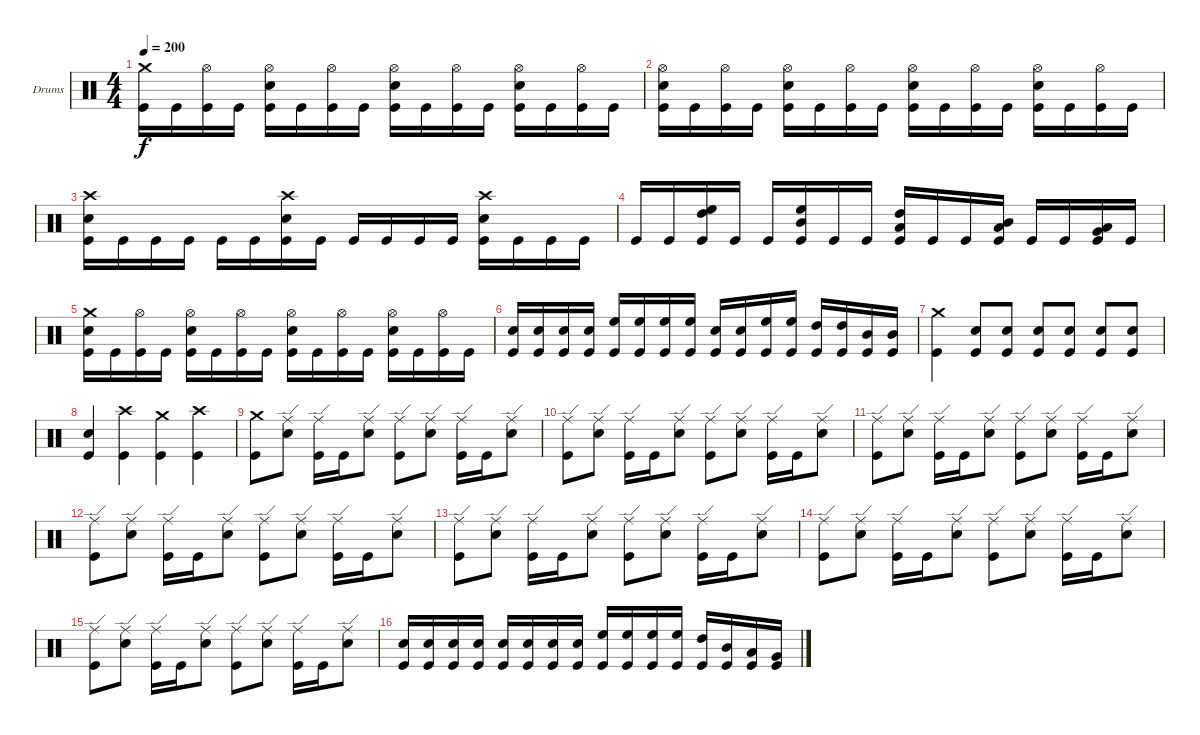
\bracketExtendMode groupsimilarinstruments
\firstSystemTrackNameOrientation horizontal
\otherSystemsTrackNameOrientation horizontal
\track ("Drumkit" "Drums") {instrument percussion}
\staff {score}
\articulation defaults
\ts (4 4)
\section ("" "")
\tempo 200
\clef neutral
\ks aminor
("Kick (hit)" "Crash medium (hit)").16{dy f} "Kick (hit)".16 ("Kick (hit)" "Hi-Hat (open)").16 "Kick (hit)".16 ("Kick (hit)" "Snare (hit) 2" "Hi-Hat (open)").16 "Kick (hit)".16 ("Kick (hit)" "Hi-Hat (open)").16 "Kick (hit)".16 ("Kick (hit)" "Snare (hit) 2" "Hi-Hat (open)").16 "Kick (hit)".16 ("Kick (hit)" "Hi-Hat (open)").16 "Kick (hit)".16 ("Kick (hit)" "Snare (hit) 2" "Hi-Hat (open)").16 "Kick (hit)".16 ("Kick (hit)" "Hi-Hat (open)").16 "Kick (hit)".16 |
("Kick (hit)" "Snare (hit) 2" "Hi-Hat (open)").16 "Kick (hit)".16 ("Kick (hit)" "Hi-Hat (open)").16 "Kick (hit)".16 ("Kick (hit)" "Snare (hit) 2" "Hi-Hat (open)").16 "Kick (hit)".16 ("Kick (hit)" "Hi-Hat (open)").16 "Kick (hit)".16 ("Kick (hit)" "Snare (hit) 2" "Hi-Hat (open)").16 "Kick (hit)".16 ("Kick (hit)" "Hi-Hat (open)").16 "Kick (hit)".16 ("Kick (hit)" "Snare (hit) 2" "Hi-Hat (open)").16 "Kick (hit)".16 ("Kick (hit)" "Hi-Hat (open)").16 "Kick (hit)".16 |
("Kick (hit)" "Snare (hit) 2" "Crash high (hit)").16 "Kick (hit)".16 "Kick (hit)".16 "Kick (hit)".16 "Kick (hit)".16 "Kick (hit)".16 ("Kick (hit)" "Snare (hit) 2" "Crash high (hit)").16 "Kick (hit)".16 "Kick (hit)".16 "Kick (hit)".16 "Kick (hit)".16 "Kick (hit)".16 ("Kick (hit)" "Snare (hit) 2" "Crash high (hit)").16 "Kick (hit)".16 "Kick (hit)".16 "Kick (hit)".16 |
"Kick (hit)".16 "Kick (hit)".16 ("Kick (hit)" "High Floor Tom (hit)" "High Tom (hit)").16 "Kick (hit)".16 "Kick (hit)".16 ("Kick (hit)" "High Floor Tom (hit)" "Mid Tom (hit)").16 "Kick (hit)".16 "Kick (hit)".16 ("Kick (hit)" "High Tom (hit)" "Low Tom (hit)").16 "Kick (hit)".16 "Kick (hit)".16 ("Kick (hit)" "Mid Tom (hit)" "Low Tom (hit)").16 "Kick (hit)".16 "Kick (hit)".16 ("Kick (hit)" "Low Tom (hit)" "Very Low Tom (hit)").16 "Kick (hit)".16 |
("Kick (hit)" "Snare (hit) 2" "Crash medium (hit)").16 "Kick (hit)".16 ("Kick (hit)" "Hi-Hat (open)").16 "Kick (hit)".16 ("Kick (hit)" "Snare (hit) 2" "Hi-Hat (open)").16 "Kick (hit)".16 ("Kick (hit)" "Hi-Hat (open)").16 "Kick (hit)".16 ("Kick (hit)" "Snare (hit) 2" "Hi-Hat (open)").16 "Kick (hit)".16 ("Kick (hit)" "Hi-Hat (open)").16 "Kick (hit)".16 ("Kick (hit)" "Snare (hit) 2" "Hi-Hat (open)").16 "Kick (hit)".16 ("Kick (hit)" "Hi-Hat (open)").16 "Kick (hit)".16 |
("Kick (hit)" "Snare (hit) 2").16 ("Kick (hit)" "Snare (hit) 2").16 ("Kick (hit)" "Snare (hit) 2").16 ("Kick (hit)" "Snare (hit) 2").16 ("Kick (hit)" "High Floor Tom (hit)").16 ("Kick (hit)" "High Floor Tom (hit)").16 ("Kick (hit)" "High Floor Tom (hit)").16 ("Kick (hit)" "High Floor Tom (hit)").16 ("Kick (hit)" "Snare (hit) 2").16 ("Kick (hit)" "Snare (hit) 2").16 ("Kick (hit)" "High Floor Tom (hit)").16 ("Kick (hit)" "High Floor Tom (hit)").16 ("Kick (hit)" "High Tom (hit)").16 ("Kick (hit)" "High Tom (hit)").16 ("Kick (hit)" "Mid Tom (hit)").16 ("Kick (hit)" "Mid Tom (hit)").16 |
("Kick (hit)" "Crash medium (hit)").4 ("Kick (hit)" "Snare (hit) 2").8 ("Kick (hit)" "Snare (hit) 2").8 ("Kick (hit)" "Snare (hit) 2").8 ("Kick (hit)" "Snare (hit) 2").8 ("Kick (hit)" "Snare (hit) 2").8 ("Kick (hit)" "Snare (hit) 2").8 |
("Kick (hit)" "Snare (hit) 2").4 ("Kick (hit)" "Crash high (hit)").4 ("Kick (hit)" "Crash medium (hit)").4 ("Kick (hit)" "Crash high (hit)").4 |
\section ("" "")
("Kick (hit)" "Crash medium (hit)").8 ("Snare (hit) 2" "Ride (edge)").8 ("Kick (hit)" "Ride (edge)").16 "Kick (hit)".16 ("Snare (hit) 2" "Ride (edge)").8 ("Kick (hit)" "Ride (edge)").8 ("Snare (hit) 2" "Ride (edge)").8 ("Kick (hit)" "Ride (edge)").16 "Kick (hit)".16 ("Snare (hit) 2" "Ride (edge)").8 |
("Kick (hit)" "Ride (edge)").8 ("Snare (hit) 2" "Ride (edge)").8 ("Kick (hit)" "Ride (edge)").16 "Kick (hit)".16 ("Snare (hit) 2" "Ride (edge)").8 ("Kick (hit)" "Ride (edge)").8 ("Snare (hit) 2" "Ride (edge)").8 ("Kick (hit)" "Ride (edge)").16 "Kick (hit)".16 ("Snare (hit) 2" "Ride (edge)").8 |
("Kick (hit)" "Ride (edge)").8 ("Snare (hit) 2" "Ride (edge)").8 ("Kick (hit)" "Ride (edge)").16 "Kick (hit)".16 ("Snare (hit) 2" "Ride (edge)").8 ("Kick (hit)" "Ride (edge)").8 ("Snare (hit) 2" "Ride (edge)").8 ("Kick (hit)" "Ride (edge)").16 "Kick (hit)".16 ("Snare (hit) 2" "Ride (edge)").8 |
("Kick (hit)" "Ride (edge)").8 ("Snare (hit) 2" "Ride (edge)").8 ("Kick (hit)" "Ride (edge)").16 "Kick (hit)".16 ("Snare (hit) 2" "Ride (edge)").8 ("Kick (hit)" "Ride (edge)").8 ("Snare (hit) 2" "Ride (edge)").8 ("Kick (hit)" "Ride (edge)").16 "Kick (hit)".16 ("Snare (hit) 2" "Ride (edge)").8 |
("Kick (hit)" "Ride (edge)").8 ("Snare (hit) 2" "Ride (edge)").8 ("Kick (hit)" "Ride (edge)").16 "Kick (hit)".16 ("Snare (hit) 2" "Ride (edge)").8 ("Kick (hit)" "Ride (edge)").8 ("Snare (hit) 2" "Ride (edge)").8 ("Kick (hit)" "Ride (edge)").16 "Kick (hit)".16 ("Snare (hit) 2" "Ride (edge)").8 |
("Kick (hit)" "Ride (edge)").8 ("Snare (hit) 2" "Ride (edge)").8 ("Kick (hit)" "Ride (edge)").16 "Kick (hit)".16 ("Snare (hit) 2" "Ride (edge)").8 ("Kick (hit)" "Ride (edge)").8 ("Snare (hit) 2" "Ride (edge)").8 ("Kick (hit)" "Ride (edge)").16 "Kick (hit)".16 ("Snare (hit) 2" "Ride (edge)").8 |
("Kick (hit)" "Ride (edge)").8 ("Snare (hit) 2" "Ride (edge)").8 ("Kick (hit)" "Ride (edge)").16 "Kick (hit)".16 ("Snare (hit) 2" "Ride (edge)").8 ("Kick (hit)" "Ride (edge)").8 ("Snare (hit) 2" "Ride (edge)").8 ("Kick (hit)" "Ride (edge)").16 "Kick (hit)".16 ("Snare (hit) 2" "Ride (edge)").8 |
("Kick (hit)" "Snare (hit) 2").16 ("Kick (hit)" "Snare (hit) 2").16 ("Kick (hit)" "Snare (hit) 2").16 ("Kick (hit)" "Snare (hit) 2").16 ("Kick (hit)" "Snare (hit) 2").16 ("Kick (hit)" "Snare (hit) 2").16 ("Kick (hit)" "Snare (hit) 2").16 ("Kick (hit)" "Snare (hit) 2").16 ("Kick (hit)" "High Floor Tom (hit)").16 ("Kick (hit)" "High Floor Tom (hit)").16 ("Kick (hit)" "High Floor Tom (hit)").16 ("Kick (hit)" "High Floor Tom (hit)").16 ("Kick (hit)" "High Tom (hit)").16 ("Kick (hit)" "Mid Tom (hit)").16 ("Kick (hit)" "Low Tom (hit)").16 ("Kick (hit)" "Very Low Tom (hit)").16
